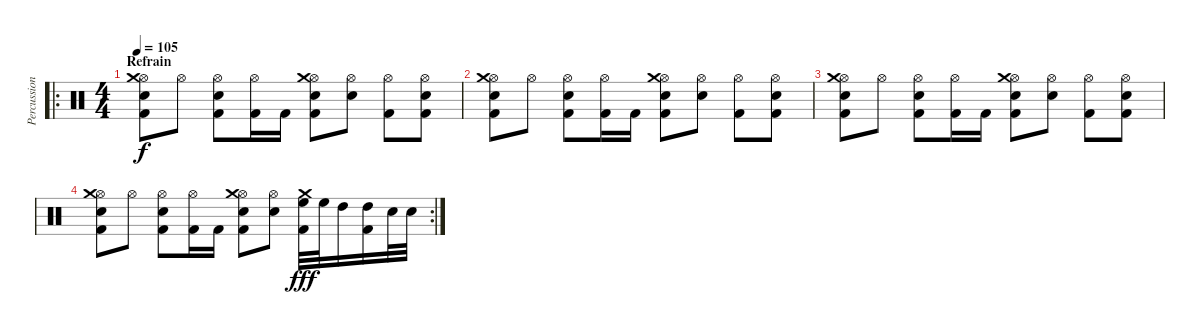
\track ("Percussions" "Percussion") {instrument percussion}
\staff {score}
\articulation defaults
\ro
\ts (4 4)
\section ("" "Refrain")
\tempo 105
\clef neutral
\ks c
("Hi-Hat (open)" "Kick (hit) 2" "Snare (hit) 2" "Crash medium (hit)").8{dy f} "Hi-Hat (open)".8 ("Hi-Hat (open)" "Kick (hit) 2" "Snare (hit) 2").8 ("Hi-Hat (open)" "Kick (hit) 2").16 "Kick (hit) 2".16 ("Hi-Hat (open)" "Kick (hit) 2" "Snare (hit) 2" "Crash medium (hit)").8 ("Hi-Hat (open)" "Snare (hit) 2").8 ("Hi-Hat (open)" "Kick (hit) 2").8 ("Hi-Hat (open)" "Kick (hit) 2" "Snare (hit) 2").8 |
("Hi-Hat (open)" "Kick (hit) 2" "Snare (hit) 2" "Crash medium (hit)").8 "Hi-Hat (open)".8 ("Hi-Hat (open)" "Kick (hit) 2" "Snare (hit) 2").8 ("Hi-Hat (open)" "Kick (hit) 2").16 "Kick (hit) 2".16 ("Hi-Hat (open)" "Kick (hit) 2" "Snare (hit) 2" "Crash medium (hit)").8 ("Hi-Hat (open)" "Snare (hit) 2").8 ("Hi-Hat (open)" "Kick (hit) 2").8 ("Hi-Hat (open)" "Kick (hit) 2" "Snare (hit) 2").8 |
("Hi-Hat (open)" "Kick (hit) 2" "Snare (hit) 2" "Crash medium (hit)").8 "Hi-Hat (open)".8 ("Hi-Hat (open)" "Kick (hit) 2" "Snare (hit) 2").8 ("Hi-Hat (open)" "Kick (hit) 2").16 "Kick (hit) 2".16 ("Hi-Hat (open)" "Kick (hit) 2" "Snare (hit) 2" "Crash medium (hit)").8 ("Hi-Hat (open)" "Snare (hit) 2").8 ("Hi-Hat (open)" "Kick (hit) 2").8 ("Hi-Hat (open)" "Kick (hit) 2" "Snare (hit) 2").8 |
\rc 2
("Hi-Hat (open)" "Kick (hit) 2" "Snare (hit) 2" "Crash medium (hit)").8 "Hi-Hat (open)".8 ("Hi-Hat (open)" "Kick (hit) 2" "Snare (hit) 2").8 ("Hi-Hat (open)" "Kick (hit) 2").16 "Kick (hit) 2".16 ("Hi-Hat (open)" "Kick (hit) 2" "Snare (hit) 2" "Crash medium (hit)").8 ("Hi-Hat (open)" "Snare (hit) 2").8 ("Crash medium (hit)" "Kick (hit) 2" "High Floor Tom (hit)").32{dy fff} "High Floor Tom (hit)".32 "High Tom (hit)".16 ("Kick (hit) 2" "High Tom (hit)").16 "Snare (hit) 2".32 "Snare (hit) 2".32
